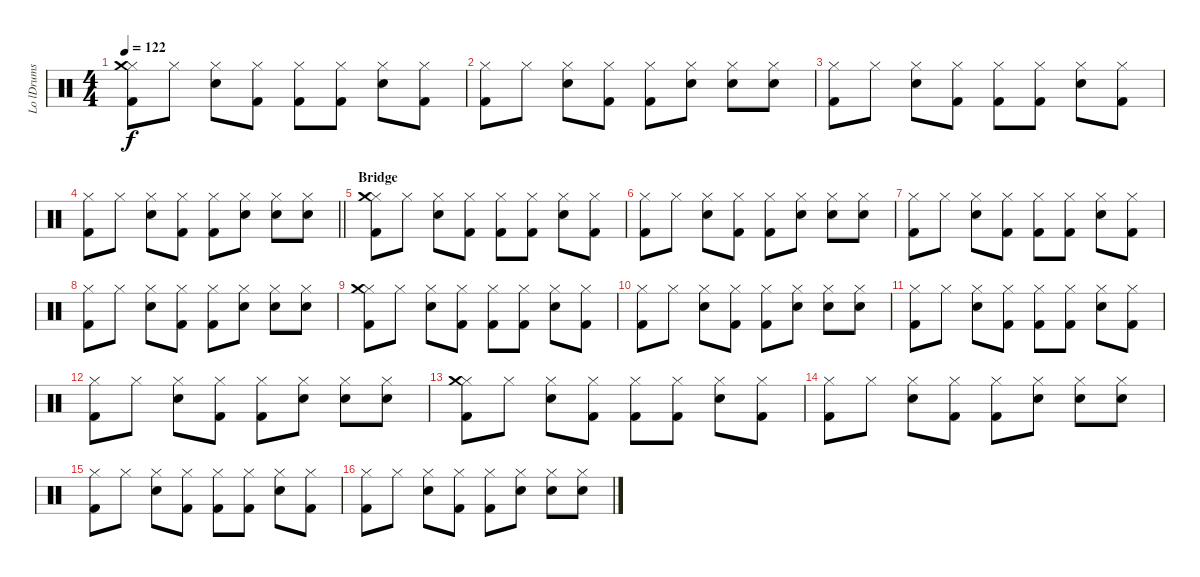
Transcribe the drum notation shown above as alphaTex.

\track ("Lo lDrums" "Lo lDrums") {instrument percussion}
\staff {score}
\articulation defaults
\ts (4 4)
\tempo 122
\clef neutral
\ks c
("Hi-Hat (closed)" "Crash medium (hit)" "Kick (hit) 2").8{dy f} "Hi-Hat (closed)".8 ("Hi-Hat (closed)" "Snare (hit) 2").8 ("Hi-Hat (closed)" "Kick (hit) 2").8 ("Hi-Hat (closed)" "Kick (hit) 2").8 ("Hi-Hat (closed)" "Kick (hit) 2").8 ("Hi-Hat (closed)" "Snare (hit) 2").8 ("Hi-Hat (closed)" "Kick (hit) 2").8 |
("Kick (hit) 2" "Hi-Hat (closed)").8 "Hi-Hat (closed)".8 ("Snare (hit) 2" "Hi-Hat (closed)").8 ("Kick (hit) 2" "Hi-Hat (closed)").8 ("Kick (hit) 2" "Hi-Hat (closed)").8 ("Snare (hit) 2" "Hi-Hat (closed)").8 ("Snare (hit) 2" "Hi-Hat (closed)").8 ("Snare (hit) 2" "Hi-Hat (closed)").8 |
("Kick (hit) 2" "Hi-Hat (closed)").8 "Hi-Hat (closed)".8 ("Hi-Hat (closed)" "Snare (hit) 2").8 ("Hi-Hat (closed)" "Kick (hit) 2").8 ("Hi-Hat (closed)" "Kick (hit) 2").8 ("Hi-Hat (closed)" "Kick (hit) 2").8 ("Hi-Hat (closed)" "Snare (hit) 2").8 ("Hi-Hat (closed)" "Kick (hit) 2").8 |
\barLineRight lightlight
("Kick (hit) 2" "Hi-Hat (closed)").8 "Hi-Hat (closed)".8 ("Snare (hit) 2" "Hi-Hat (closed)").8 ("Kick (hit) 2" "Hi-Hat (closed)").8 ("Kick (hit) 2" "Hi-Hat (closed)").8 ("Snare (hit) 2" "Hi-Hat (closed)").8 ("Snare (hit) 2" "Hi-Hat (closed)").8 ("Snare (hit) 2" "Hi-Hat (closed)").8 |
\section ("" "Bridge")
("Hi-Hat (closed)" "Crash medium (hit)" "Kick (hit) 2").8 "Hi-Hat (closed)".8 ("Hi-Hat (closed)" "Snare (hit) 2").8 ("Hi-Hat (closed)" "Kick (hit) 2").8 ("Hi-Hat (closed)" "Kick (hit) 2").8 ("Hi-Hat (closed)" "Kick (hit) 2").8 ("Hi-Hat (closed)" "Snare (hit) 2").8 ("Hi-Hat (closed)" "Kick (hit) 2").8 |
("Kick (hit) 2" "Hi-Hat (closed)").8 "Hi-Hat (closed)".8 ("Snare (hit) 2" "Hi-Hat (closed)").8 ("Kick (hit) 2" "Hi-Hat (closed)").8 ("Kick (hit) 2" "Hi-Hat (closed)").8 ("Snare (hit) 2" "Hi-Hat (closed)").8 ("Snare (hit) 2" "Hi-Hat (closed)").8 ("Snare (hit) 2" "Hi-Hat (closed)").8 |
("Kick (hit) 2" "Hi-Hat (closed)").8 "Hi-Hat (closed)".8 ("Hi-Hat (closed)" "Snare (hit) 2").8 ("Hi-Hat (closed)" "Kick (hit) 2").8 ("Hi-Hat (closed)" "Kick (hit) 2").8 ("Hi-Hat (closed)" "Kick (hit) 2").8 ("Hi-Hat (closed)" "Snare (hit) 2").8 ("Hi-Hat (closed)" "Kick (hit) 2").8 |
("Kick (hit) 2" "Hi-Hat (closed)").8 "Hi-Hat (closed)".8 ("Snare (hit) 2" "Hi-Hat (closed)").8 ("Kick (hit) 2" "Hi-Hat (closed)").8 ("Kick (hit) 2" "Hi-Hat (closed)").8 ("Snare (hit) 2" "Hi-Hat (closed)").8 ("Snare (hit) 2" "Hi-Hat (closed)").8 ("Snare (hit) 2" "Hi-Hat (closed)").8 |
("Hi-Hat (closed)" "Crash medium (hit)" "Kick (hit) 2").8 "Hi-Hat (closed)".8 ("Hi-Hat (closed)" "Snare (hit) 2").8 ("Hi-Hat (closed)" "Kick (hit) 2").8 ("Hi-Hat (closed)" "Kick (hit) 2").8 ("Hi-Hat (closed)" "Kick (hit) 2").8 ("Hi-Hat (closed)" "Snare (hit) 2").8 ("Hi-Hat (closed)" "Kick (hit) 2").8 |
("Kick (hit) 2" "Hi-Hat (closed)").8 "Hi-Hat (closed)".8 ("Snare (hit) 2" "Hi-Hat (closed)").8 ("Kick (hit) 2" "Hi-Hat (closed)").8 ("Kick (hit) 2" "Hi-Hat (closed)").8 ("Snare (hit) 2" "Hi-Hat (closed)").8 ("Snare (hit) 2" "Hi-Hat (closed)").8 ("Snare (hit) 2" "Hi-Hat (closed)").8 |
("Kick (hit) 2" "Hi-Hat (closed)").8 "Hi-Hat (closed)".8 ("Hi-Hat (closed)" "Snare (hit) 2").8 ("Hi-Hat (closed)" "Kick (hit) 2").8 ("Hi-Hat (closed)" "Kick (hit) 2").8 ("Hi-Hat (closed)" "Kick (hit) 2").8 ("Hi-Hat (closed)" "Snare (hit) 2").8 ("Hi-Hat (closed)" "Kick (hit) 2").8 |
("Kick (hit) 2" "Hi-Hat (closed)").8 "Hi-Hat (closed)".8 ("Snare (hit) 2" "Hi-Hat (closed)").8 ("Kick (hit) 2" "Hi-Hat (closed)").8 ("Kick (hit) 2" "Hi-Hat (closed)").8 ("Snare (hit) 2" "Hi-Hat (closed)").8 ("Snare (hit) 2" "Hi-Hat (closed)").8 ("Snare (hit) 2" "Hi-Hat (closed)").8 |
("Hi-Hat (closed)" "Crash medium (hit)" "Kick (hit) 2").8 "Hi-Hat (closed)".8 ("Hi-Hat (closed)" "Snare (hit) 2").8 ("Hi-Hat (closed)" "Kick (hit) 2").8 ("Hi-Hat (closed)" "Kick (hit) 2").8 ("Hi-Hat (closed)" "Kick (hit) 2").8 ("Hi-Hat (closed)" "Snare (hit) 2").8 ("Hi-Hat (closed)" "Kick (hit) 2").8 |
("Kick (hit) 2" "Hi-Hat (closed)").8 "Hi-Hat (closed)".8 ("Snare (hit) 2" "Hi-Hat (closed)").8 ("Kick (hit) 2" "Hi-Hat (closed)").8 ("Kick (hit) 2" "Hi-Hat (closed)").8 ("Snare (hit) 2" "Hi-Hat (closed)").8 ("Snare (hit) 2" "Hi-Hat (closed)").8 ("Snare (hit) 2" "Hi-Hat (closed)").8 |
("Kick (hit) 2" "Hi-Hat (closed)").8 "Hi-Hat (closed)".8 ("Hi-Hat (closed)" "Snare (hit) 2").8 ("Hi-Hat (closed)" "Kick (hit) 2").8 ("Hi-Hat (closed)" "Kick (hit) 2").8 ("Hi-Hat (closed)" "Kick (hit) 2").8 ("Hi-Hat (closed)" "Snare (hit) 2").8 ("Hi-Hat (closed)" "Kick (hit) 2").8 |
("Kick (hit) 2" "Hi-Hat (closed)").8 "Hi-Hat (closed)".8 ("Snare (hit) 2" "Hi-Hat (closed)").8 ("Kick (hit) 2" "Hi-Hat (closed)").8 ("Kick (hit) 2" "Hi-Hat (closed)").8 ("Snare (hit) 2" "Hi-Hat (closed)").8 ("Snare (hit) 2" "Hi-Hat (closed)").8 ("Snare (hit) 2" "Hi-Hat (closed)").8
